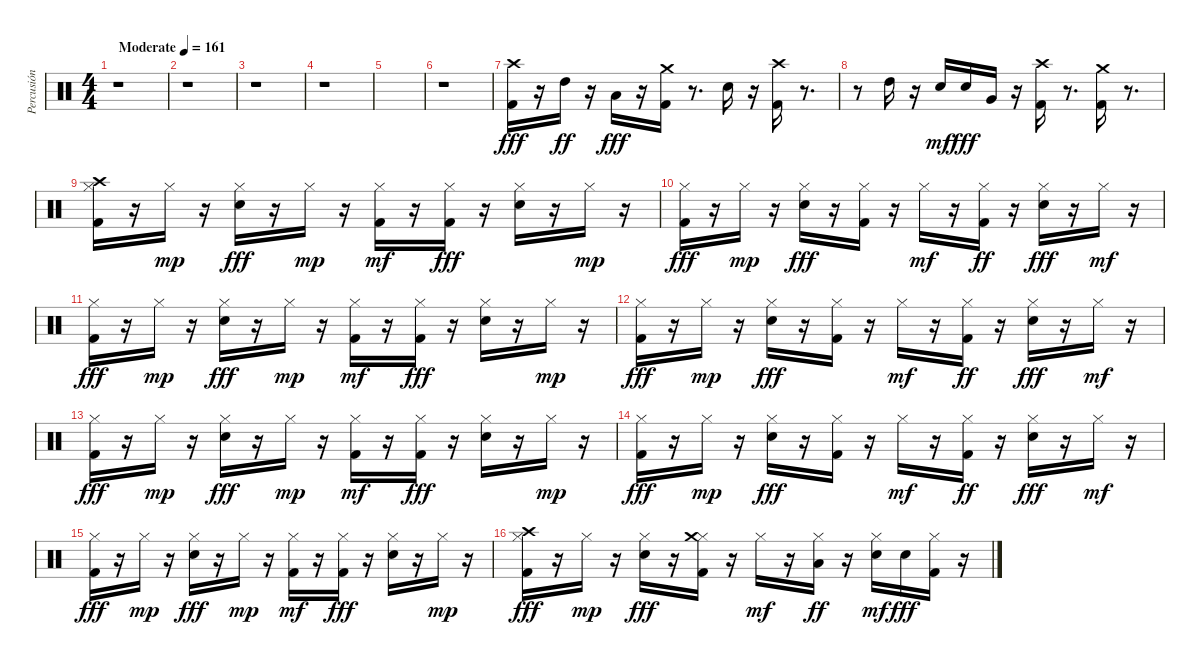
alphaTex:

\track ("Percusión" "Percusión") {instrument percussion}
\staff {score}
\articulation defaults
\ts (4 4)
\tempo (161 "Moderate")
\clef neutral
\ks c
r.1{dy fff} |
r.1 |
r.1 |
r.1 |
|
r.1 |
("Crash high (hit)" "Kick (hit) 2").16 r.16 "High Tom (hit)".16{dy ff} r.16 "Low Tom (hit)".16{dy fff} r.16 ("Crash medium (hit)" "Kick (hit) 2").16 r.8{d} "Snare (hit) 2".16 r.16 ("Crash high (hit)" "Kick (hit) 2").16 r.8{d} |
r.8 "High Tom (hit)".16 r.16 "Snare (hit) 2".16{dy mf} "Snare (hit) 2".16{dy fff} "Very Low Tom (hit)".16 r.16 ("Crash high (hit)" "Kick (hit) 2").16 r.8{d} ("Crash medium (hit)" "Kick (hit) 2").16 r.8{d} |
("Hi-Hat (closed)" "Crash high (hit)" "Kick (hit) 2").16 r.16 "Hi-Hat (closed)".16{dy mp} r.16 ("Hi-Hat (closed)" "Snare (hit) 2").16{dy fff} r.16 "Hi-Hat (closed)".16{dy mp} r.16 ("Hi-Hat (closed)" "Kick (hit) 2").16{dy mf} r.16 ("Hi-Hat (closed)" "Kick (hit) 2").16{dy fff} r.16 ("Hi-Hat (closed)" "Snare (hit) 2").16 r.16 "Hi-Hat (closed)".16{dy mp} r.16 |
("Hi-Hat (closed)" "Kick (hit) 2").16{dy fff} r.16 "Hi-Hat (closed)".16{dy mp} r.16 ("Hi-Hat (closed)" "Snare (hit) 2").16{dy fff} r.16 ("Hi-Hat (closed)" "Kick (hit) 2").16 r.16 "Hi-Hat (closed)".16{dy mf} r.16 ("Hi-Hat (closed)" "Kick (hit) 2").16{dy ff} r.16 ("Hi-Hat (closed)" "Snare (hit) 2").16{dy fff} r.16 "Hi-Hat (closed)".16{dy mf} r.16 |
("Hi-Hat (closed)" "Kick (hit) 2").16{dy fff} r.16 "Hi-Hat (closed)".16{dy mp} r.16 ("Hi-Hat (closed)" "Snare (hit) 2").16{dy fff} r.16 "Hi-Hat (closed)".16{dy mp} r.16 ("Hi-Hat (closed)" "Kick (hit) 2").16{dy mf} r.16 ("Hi-Hat (closed)" "Kick (hit) 2").16{dy fff} r.16 ("Hi-Hat (closed)" "Snare (hit) 2").16 r.16 "Hi-Hat (closed)".16{dy mp} r.16 |
("Hi-Hat (closed)" "Kick (hit) 2").16{dy fff} r.16 "Hi-Hat (closed)".16{dy mp} r.16 ("Hi-Hat (closed)" "Snare (hit) 2").16{dy fff} r.16 ("Hi-Hat (closed)" "Kick (hit) 2").16 r.16 "Hi-Hat (closed)".16{dy mf} r.16 ("Hi-Hat (closed)" "Kick (hit) 2").16{dy ff} r.16 ("Hi-Hat (closed)" "Snare (hit) 2").16{dy fff} r.16 "Hi-Hat (closed)".16{dy mf} r.16 |
("Hi-Hat (closed)" "Kick (hit) 2").16{dy fff} r.16 "Hi-Hat (closed)".16{dy mp} r.16 ("Hi-Hat (closed)" "Snare (hit) 2").16{dy fff} r.16 "Hi-Hat (closed)".16{dy mp} r.16 ("Hi-Hat (closed)" "Kick (hit) 2").16{dy mf} r.16 ("Hi-Hat (closed)" "Kick (hit) 2").16{dy fff} r.16 ("Hi-Hat (closed)" "Snare (hit) 2").16 r.16 "Hi-Hat (closed)".16{dy mp} r.16 |
("Hi-Hat (closed)" "Kick (hit) 2").16{dy fff} r.16 "Hi-Hat (closed)".16{dy mp} r.16 ("Hi-Hat (closed)" "Snare (hit) 2").16{dy fff} r.16 ("Hi-Hat (closed)" "Kick (hit) 2").16 r.16 "Hi-Hat (closed)".16{dy mf} r.16 ("Hi-Hat (closed)" "Kick (hit) 2").16{dy ff} r.16 ("Hi-Hat (closed)" "Snare (hit) 2").16{dy fff} r.16 "Hi-Hat (closed)".16{dy mf} r.16 |
("Hi-Hat (closed)" "Kick (hit) 2").16{dy fff} r.16 "Hi-Hat (closed)".16{dy mp} r.16 ("Hi-Hat (closed)" "Snare (hit) 2").16{dy fff} r.16 "Hi-Hat (closed)".16{dy mp} r.16 ("Hi-Hat (closed)" "Kick (hit) 2").16{dy mf} r.16 ("Hi-Hat (closed)" "Kick (hit) 2").16{dy fff} r.16 ("Hi-Hat (closed)" "Snare (hit) 2").16 r.16 "Hi-Hat (closed)".16{dy mp} r.16 |
("Hi-Hat (closed)" "Crash high (hit)" "Kick (hit) 2").16{dy fff} r.16 "Hi-Hat (closed)".16{dy mp} r.16 ("Hi-Hat (closed)" "Snare (hit) 2").16{dy fff} r.16 ("Hi-Hat (closed)" "Crash medium (hit)" "Kick (hit) 2").16 r.16 "Hi-Hat (closed)".16{dy mf} r.16 ("Hi-Hat (closed)" "Low Tom (hit)").16{dy ff} r.16 ("Hi-Hat (closed)" "Snare (hit) 2").16{dy mf} "Snare (hit) 2".16{dy fff} ("Hi-Hat (closed)" "Kick (hit) 2").16 r.16
